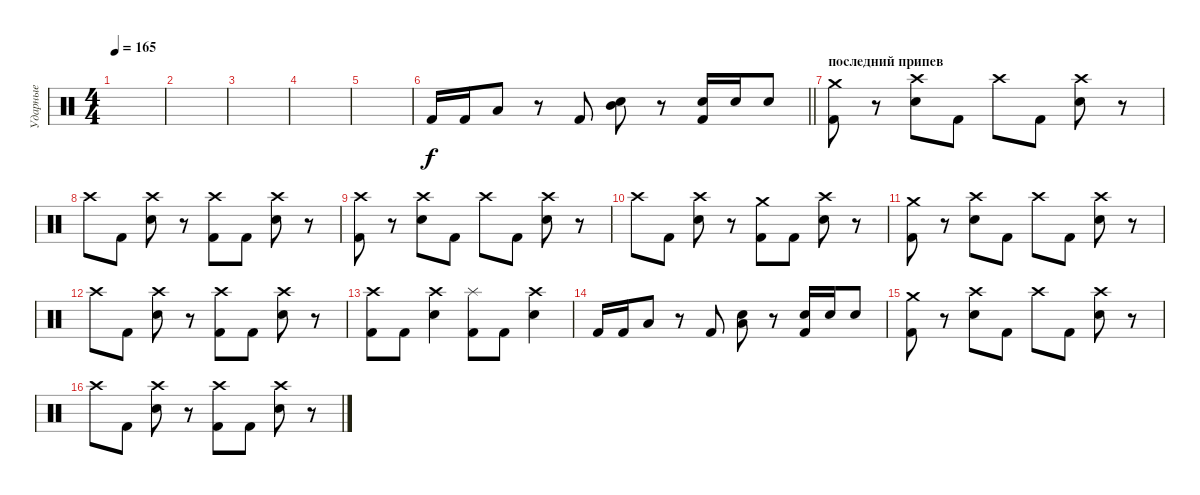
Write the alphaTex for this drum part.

\track ("Ударные" "Ударные") {instrument percussion}
\staff {score}
\articulation defaults
\ts (4 4)
\tempo 165
\clef neutral
\ks c
|
|
|
|
|
\barLineRight lightlight "Kick (hit) 2".16 "Kick (hit) 2".16 "Low Tom (hit)".8
r.8 "Kick (hit) 2".8 ("Snare (hit) 2" "Mid Tom (hit)").8 r.8 ("Snare (hit) 2" "Kick (hit) 2").16 "Snare (hit) 2".16 "Snare (hit) 2".8 |
\section ("" "последний припев")
("Crash medium (hit)" "Kick (hit) 2").8 r.8 ("Crash high (hit)" "Snare (hit) 2").8 "Kick (hit) 2".8 "Crash high (hit)".8 "Kick (hit) 2".8 ("Crash high (hit)" "Snare (hit) 2").8 r.8 |
"Crash high (hit)".8 "Kick (hit) 2".8 ("Crash high (hit)" "Snare (hit) 2").8 r.8 ("Crash high (hit)" "Kick (hit) 2").8 "Kick (hit) 2".8 ("Crash high (hit)" "Snare (hit) 2").8 r.8 |
("Crash high (hit)" "Kick (hit) 2").8 r.8 ("Crash high (hit)" "Snare (hit) 2").8 "Kick (hit) 2".8 "Crash high (hit)".8 "Kick (hit) 2".8 ("Crash high (hit)" "Snare (hit) 2").8 r.8 |
"Crash high (hit)".8 "Kick (hit) 2".8 ("Crash high (hit)" "Snare (hit) 2").8 r.8 ("Crash medium (hit)" "Kick (hit) 2").8 "Kick (hit) 2".8 ("Crash high (hit)" "Snare (hit) 2").8 r.8 |
("Crash medium (hit)" "Kick (hit) 2").8 r.8 ("Crash high (hit)" "Snare (hit) 2").8 "Kick (hit) 2".8 "Crash high (hit)".8 "Kick (hit) 2".8 ("Crash high (hit)" "Snare (hit) 2").8 r.8 |
"Crash high (hit)".8 "Kick (hit) 2".8 ("Crash high (hit)" "Snare (hit) 2").8 r.8 ("Crash high (hit)" "Kick (hit) 2").8 "Kick (hit) 2".8 ("Crash high (hit)" "Snare (hit) 2").8 r.8 |
("Crash high (hit)" "Kick (hit) 2").8 "Kick (hit) 2".8 ("Crash high (hit)" "Snare (hit) 2").4 ("Splash (hit)" "Kick (hit) 2").8 "Kick (hit) 2".8 ("Crash high (hit)" "Snare (hit) 2").4 |
"Kick (hit) 2".16 "Kick (hit) 2".16 "Low Tom (hit)".8 r.8 "Kick (hit) 2".8 ("Snare (hit) 2" "Low Floor Tom (hit)").8 r.8 ("Snare (hit) 2" "Kick (hit) 2").16 "Snare (hit) 2".16 "Snare (hit) 2".8 |
("Crash medium (hit)" "Kick (hit) 2").8 r.8 ("Crash high (hit)" "Snare (hit) 2").8 "Kick (hit) 2".8 "Crash high (hit)".8 "Kick (hit) 2".8 ("Crash high (hit)" "Snare (hit) 2").8 r.8 |
"Crash high (hit)".8 "Kick (hit) 2".8 ("Crash high (hit)" "Snare (hit) 2").8 r.8 ("Crash high (hit)" "Kick (hit) 2").8 "Kick (hit) 2".8 ("Crash high (hit)" "Snare (hit) 2").8 r.8
